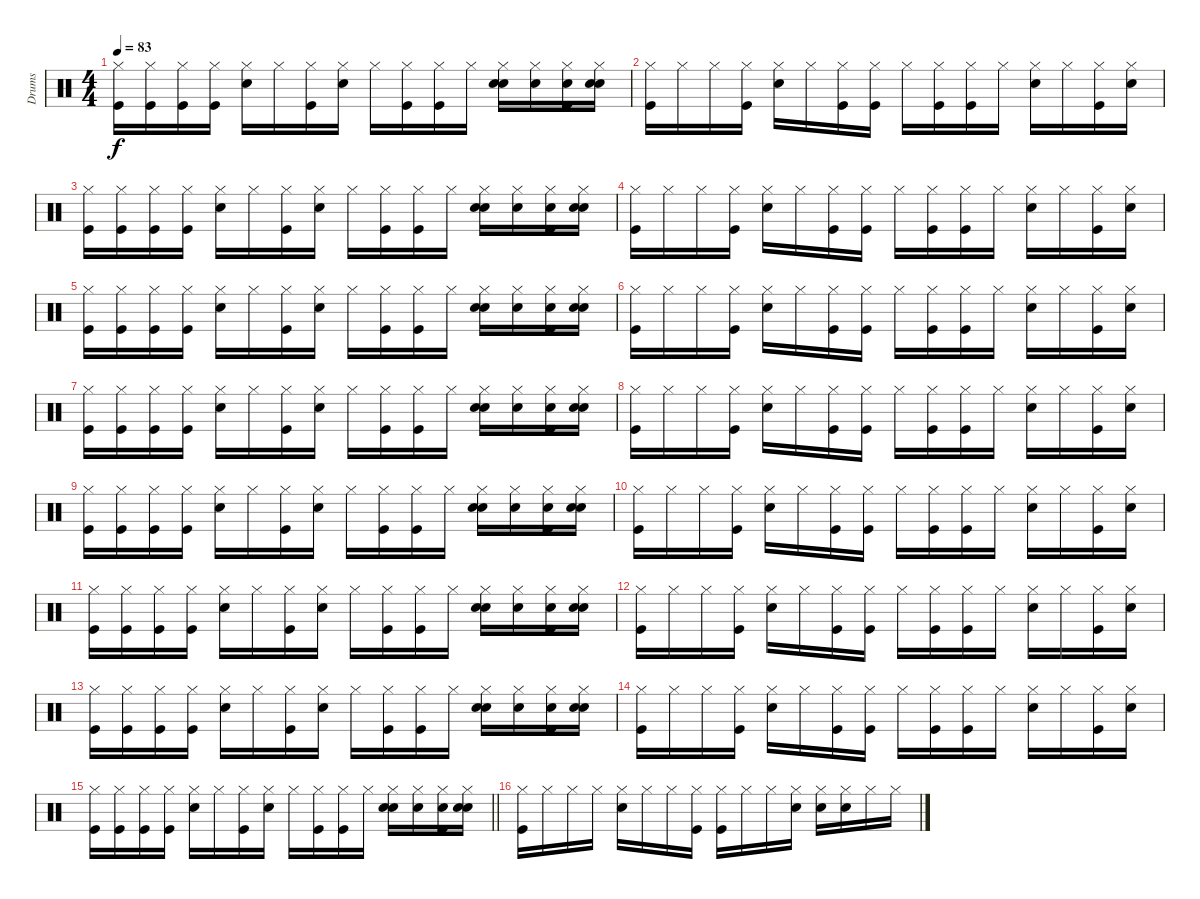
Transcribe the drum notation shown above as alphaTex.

\track ("Drums" "Drums") {instrument percussion}
\staff {score}
\articulation defaults
\ts (4 4)
\tempo 83
\clef neutral
\ks c
("Hi-Hat (closed)" "Kick (hit)").16{dy f} ("Hi-Hat (closed)" "Kick (hit)").16 ("Hi-Hat (closed)" "Kick (hit)").16 ("Hi-Hat (closed)" "Kick (hit)").16 ("Hi-Hat (closed)" "Snare (hit) 2").16 "Hi-Hat (closed)".16 ("Hi-Hat (closed)" "Kick (hit)").16 ("Hi-Hat (closed)" "Snare (hit) 2").16 "Hi-Hat (closed)".16 ("Hi-Hat (closed)" "Kick (hit)").16 ("Hi-Hat (closed)" "Kick (hit)").16 "Hi-Hat (closed)".16 ("Hand Clap (hit)" "Hi-Hat (closed)" "Snare (hit) 2").16 ("Hand Clap (hit)" "Hi-Hat (closed)").16 ("Hand Clap (hit)" "Hi-Hat (closed)" "Kick (hit)").16 ("Hand Clap (hit)" "Hi-Hat (closed)" "Snare (hit) 2").16 |
("Hi-Hat (closed)" "Kick (hit)").16 "Hi-Hat (closed)".16 "Hi-Hat (closed)".16 ("Hi-Hat (closed)" "Kick (hit)").16 ("Hi-Hat (closed)" "Snare (hit) 2").16 "Hi-Hat (closed)".16 ("Hi-Hat (closed)" "Kick (hit)").16 ("Hi-Hat (closed)" "Kick (hit)").16 "Hi-Hat (closed)".16 ("Hi-Hat (closed)" "Kick (hit)").16 ("Hi-Hat (closed)" "Kick (hit)").16 "Hi-Hat (closed)".16 ("Hi-Hat (closed)" "Snare (hit) 2").16 "Hi-Hat (closed)".16 ("Hi-Hat (closed)" "Kick (hit)").16 ("Hi-Hat (closed)" "Snare (hit) 2").16 |
("Hi-Hat (closed)" "Kick (hit)").16 ("Hi-Hat (closed)" "Kick (hit)").16 ("Hi-Hat (closed)" "Kick (hit)").16 ("Hi-Hat (closed)" "Kick (hit)").16 ("Hi-Hat (closed)" "Snare (hit) 2").16 "Hi-Hat (closed)".16 ("Hi-Hat (closed)" "Kick (hit)").16 ("Hi-Hat (closed)" "Snare (hit) 2").16 "Hi-Hat (closed)".16 ("Hi-Hat (closed)" "Kick (hit)").16 ("Hi-Hat (closed)" "Kick (hit)").16 "Hi-Hat (closed)".16 ("Hand Clap (hit)" "Hi-Hat (closed)" "Snare (hit) 2").16 ("Hand Clap (hit)" "Hi-Hat (closed)").16 ("Hand Clap (hit)" "Hi-Hat (closed)" "Kick (hit)").16 ("Hand Clap (hit)" "Hi-Hat (closed)" "Snare (hit) 2").16 |
("Hi-Hat (closed)" "Kick (hit)").16 "Hi-Hat (closed)".16 "Hi-Hat (closed)".16 ("Hi-Hat (closed)" "Kick (hit)").16 ("Hi-Hat (closed)" "Snare (hit) 2").16 "Hi-Hat (closed)".16 ("Hi-Hat (closed)" "Kick (hit)").16 ("Hi-Hat (closed)" "Kick (hit)").16 "Hi-Hat (closed)".16 ("Hi-Hat (closed)" "Kick (hit)").16 ("Hi-Hat (closed)" "Kick (hit)").16 "Hi-Hat (closed)".16 ("Hi-Hat (closed)" "Snare (hit) 2").16 "Hi-Hat (closed)".16 ("Hi-Hat (closed)" "Kick (hit)").16 ("Hi-Hat (closed)" "Snare (hit) 2").16 |
("Hi-Hat (closed)" "Kick (hit)").16 ("Hi-Hat (closed)" "Kick (hit)").16 ("Hi-Hat (closed)" "Kick (hit)").16 ("Hi-Hat (closed)" "Kick (hit)").16 ("Hi-Hat (closed)" "Snare (hit) 2").16 "Hi-Hat (closed)".16 ("Hi-Hat (closed)" "Kick (hit)").16 ("Hi-Hat (closed)" "Snare (hit) 2").16 "Hi-Hat (closed)".16 ("Hi-Hat (closed)" "Kick (hit)").16 ("Hi-Hat (closed)" "Kick (hit)").16 "Hi-Hat (closed)".16 ("Hand Clap (hit)" "Hi-Hat (closed)" "Snare (hit) 2").16 ("Hand Clap (hit)" "Hi-Hat (closed)").16 ("Hand Clap (hit)" "Hi-Hat (closed)" "Kick (hit)").16 ("Hand Clap (hit)" "Hi-Hat (closed)" "Snare (hit) 2").16 |
("Hi-Hat (closed)" "Kick (hit)").16 "Hi-Hat (closed)".16 "Hi-Hat (closed)".16 ("Hi-Hat (closed)" "Kick (hit)").16 ("Hi-Hat (closed)" "Snare (hit) 2").16 "Hi-Hat (closed)".16 ("Hi-Hat (closed)" "Kick (hit)").16 ("Hi-Hat (closed)" "Kick (hit)").16 "Hi-Hat (closed)".16 ("Hi-Hat (closed)" "Kick (hit)").16 ("Hi-Hat (closed)" "Kick (hit)").16 "Hi-Hat (closed)".16 ("Hi-Hat (closed)" "Snare (hit) 2").16 "Hi-Hat (closed)".16 ("Hi-Hat (closed)" "Kick (hit)").16 ("Hi-Hat (closed)" "Snare (hit) 2").16 |
("Hi-Hat (closed)" "Kick (hit)").16 ("Hi-Hat (closed)" "Kick (hit)").16 ("Hi-Hat (closed)" "Kick (hit)").16 ("Hi-Hat (closed)" "Kick (hit)").16 ("Hi-Hat (closed)" "Snare (hit) 2").16 "Hi-Hat (closed)".16 ("Hi-Hat (closed)" "Kick (hit)").16 ("Hi-Hat (closed)" "Snare (hit) 2").16 "Hi-Hat (closed)".16 ("Hi-Hat (closed)" "Kick (hit)").16 ("Hi-Hat (closed)" "Kick (hit)").16 "Hi-Hat (closed)".16 ("Hand Clap (hit)" "Hi-Hat (closed)" "Snare (hit) 2").16 ("Hand Clap (hit)" "Hi-Hat (closed)").16 ("Hand Clap (hit)" "Hi-Hat (closed)" "Kick (hit)").16 ("Hand Clap (hit)" "Hi-Hat (closed)" "Snare (hit) 2").16 |
("Hi-Hat (closed)" "Kick (hit)").16 "Hi-Hat (closed)".16 "Hi-Hat (closed)".16 ("Hi-Hat (closed)" "Kick (hit)").16 ("Hi-Hat (closed)" "Snare (hit) 2").16 "Hi-Hat (closed)".16 ("Hi-Hat (closed)" "Kick (hit)").16 ("Hi-Hat (closed)" "Kick (hit)").16 "Hi-Hat (closed)".16 ("Hi-Hat (closed)" "Kick (hit)").16 ("Hi-Hat (closed)" "Kick (hit)").16 "Hi-Hat (closed)".16 ("Hi-Hat (closed)" "Snare (hit) 2").16 "Hi-Hat (closed)".16 ("Hi-Hat (closed)" "Kick (hit)").16 ("Hi-Hat (closed)" "Snare (hit) 2").16 |
("Hi-Hat (closed)" "Kick (hit)").16 ("Hi-Hat (closed)" "Kick (hit)").16 ("Hi-Hat (closed)" "Kick (hit)").16 ("Hi-Hat (closed)" "Kick (hit)").16 ("Hi-Hat (closed)" "Snare (hit) 2").16 "Hi-Hat (closed)".16 ("Hi-Hat (closed)" "Kick (hit)").16 ("Hi-Hat (closed)" "Snare (hit) 2").16 "Hi-Hat (closed)".16 ("Hi-Hat (closed)" "Kick (hit)").16 ("Hi-Hat (closed)" "Kick (hit)").16 "Hi-Hat (closed)".16 ("Hand Clap (hit)" "Hi-Hat (closed)" "Snare (hit) 2").16 ("Hand Clap (hit)" "Hi-Hat (closed)").16 ("Hand Clap (hit)" "Hi-Hat (closed)" "Kick (hit)").16 ("Hand Clap (hit)" "Hi-Hat (closed)" "Snare (hit) 2").16 |
("Hi-Hat (closed)" "Kick (hit)").16 "Hi-Hat (closed)".16 "Hi-Hat (closed)".16 ("Hi-Hat (closed)" "Kick (hit)").16 ("Hi-Hat (closed)" "Snare (hit) 2").16 "Hi-Hat (closed)".16 ("Hi-Hat (closed)" "Kick (hit)").16 ("Hi-Hat (closed)" "Kick (hit)").16 "Hi-Hat (closed)".16 ("Hi-Hat (closed)" "Kick (hit)").16 ("Hi-Hat (closed)" "Kick (hit)").16 "Hi-Hat (closed)".16 ("Hi-Hat (closed)" "Snare (hit) 2").16 "Hi-Hat (closed)".16 ("Hi-Hat (closed)" "Kick (hit)").16 ("Hi-Hat (closed)" "Snare (hit) 2").16 |
("Hi-Hat (closed)" "Kick (hit)").16 ("Hi-Hat (closed)" "Kick (hit)").16 ("Hi-Hat (closed)" "Kick (hit)").16 ("Hi-Hat (closed)" "Kick (hit)").16 ("Hi-Hat (closed)" "Snare (hit) 2").16 "Hi-Hat (closed)".16 ("Hi-Hat (closed)" "Kick (hit)").16 ("Hi-Hat (closed)" "Snare (hit) 2").16 "Hi-Hat (closed)".16 ("Hi-Hat (closed)" "Kick (hit)").16 ("Hi-Hat (closed)" "Kick (hit)").16 "Hi-Hat (closed)".16 ("Hand Clap (hit)" "Hi-Hat (closed)" "Snare (hit) 2").16 ("Hand Clap (hit)" "Hi-Hat (closed)").16 ("Hand Clap (hit)" "Hi-Hat (closed)" "Kick (hit)").16 ("Hand Clap (hit)" "Hi-Hat (closed)" "Snare (hit) 2").16 |
("Hi-Hat (closed)" "Kick (hit)").16 "Hi-Hat (closed)".16 "Hi-Hat (closed)".16 ("Hi-Hat (closed)" "Kick (hit)").16 ("Hi-Hat (closed)" "Snare (hit) 2").16 "Hi-Hat (closed)".16 ("Hi-Hat (closed)" "Kick (hit)").16 ("Hi-Hat (closed)" "Kick (hit)").16 "Hi-Hat (closed)".16 ("Hi-Hat (closed)" "Kick (hit)").16 ("Hi-Hat (closed)" "Kick (hit)").16 "Hi-Hat (closed)".16 ("Hi-Hat (closed)" "Snare (hit) 2").16 "Hi-Hat (closed)".16 ("Hi-Hat (closed)" "Kick (hit)").16 ("Hi-Hat (closed)" "Snare (hit) 2").16 |
("Hi-Hat (closed)" "Kick (hit)").16 ("Hi-Hat (closed)" "Kick (hit)").16 ("Hi-Hat (closed)" "Kick (hit)").16 ("Hi-Hat (closed)" "Kick (hit)").16 ("Hi-Hat (closed)" "Snare (hit) 2").16 "Hi-Hat (closed)".16 ("Hi-Hat (closed)" "Kick (hit)").16 ("Hi-Hat (closed)" "Snare (hit) 2").16 "Hi-Hat (closed)".16 ("Hi-Hat (closed)" "Kick (hit)").16 ("Hi-Hat (closed)" "Kick (hit)").16 "Hi-Hat (closed)".16 ("Hand Clap (hit)" "Hi-Hat (closed)" "Snare (hit) 2").16 ("Hand Clap (hit)" "Hi-Hat (closed)").16 ("Hand Clap (hit)" "Hi-Hat (closed)" "Kick (hit)").16 ("Hand Clap (hit)" "Hi-Hat (closed)" "Snare (hit) 2").16 |
("Hi-Hat (closed)" "Kick (hit)").16 "Hi-Hat (closed)".16 "Hi-Hat (closed)".16 ("Hi-Hat (closed)" "Kick (hit)").16 ("Hi-Hat (closed)" "Snare (hit) 2").16 "Hi-Hat (closed)".16 ("Hi-Hat (closed)" "Kick (hit)").16 ("Hi-Hat (closed)" "Kick (hit)").16 "Hi-Hat (closed)".16 ("Hi-Hat (closed)" "Kick (hit)").16 ("Hi-Hat (closed)" "Kick (hit)").16 "Hi-Hat (closed)".16 ("Hi-Hat (closed)" "Snare (hit) 2").16 "Hi-Hat (closed)".16 ("Hi-Hat (closed)" "Kick (hit)").16 ("Hi-Hat (closed)" "Snare (hit) 2").16 |
\barLineRight lightlight
("Hi-Hat (closed)" "Kick (hit)").16 ("Hi-Hat (closed)" "Kick (hit)").16 ("Hi-Hat (closed)" "Kick (hit)").16 ("Hi-Hat (closed)" "Kick (hit)").16 ("Hi-Hat (closed)" "Snare (hit) 2").16 "Hi-Hat (closed)".16 ("Hi-Hat (closed)" "Kick (hit)").16 ("Hi-Hat (closed)" "Snare (hit) 2").16 "Hi-Hat (closed)".16 ("Hi-Hat (closed)" "Kick (hit)").16 ("Hi-Hat (closed)" "Kick (hit)").16 "Hi-Hat (closed)".16 ("Hand Clap (hit)" "Hi-Hat (closed)" "Snare (hit) 2").16 ("Hand Clap (hit)" "Hi-Hat (closed)").16 ("Hand Clap (hit)" "Hi-Hat (closed)" "Kick (hit)").16 ("Hand Clap (hit)" "Hi-Hat (closed)" "Snare (hit) 2").16 |
("Hi-Hat (closed)" "Kick (hit)").16 "Hi-Hat (closed)".16 "Hi-Hat (closed)".16 "Hi-Hat (closed)".16 ("Hi-Hat (closed)" "Snare (hit) 2").16 "Hi-Hat (closed)".16 "Hi-Hat (closed)".16 ("Hi-Hat (closed)" "Kick (hit)").16 ("Hi-Hat (closed)" "Kick (hit)").16 "Hi-Hat (closed)".16 "Hi-Hat (closed)".16 ("Hand Clap (hit)" "Hi-Hat (closed)").16 ("Hi-Hat (closed)" "Snare (hit) 2").16 ("Hand Clap (hit)" "Hi-Hat (closed)").16 "Hi-Hat (closed)".16 "Hi-Hat (closed)".16
